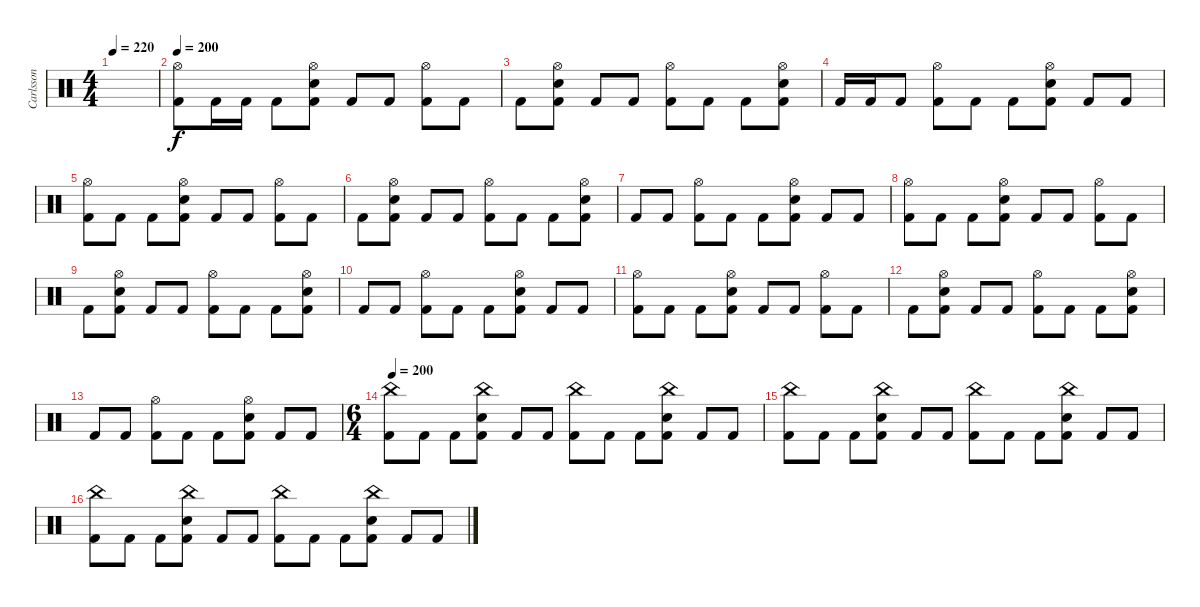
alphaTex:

\track ("Carlsson" "Carlsson") {instrument percussion}
\staff {score}
\articulation defaults
\ts (4 4)
\tempo 220
\tempo 160
\tempo 220
\clef neutral
\ks c
|
\tempo 200
("Hi-Hat (open)" "Kick (hit) 2").8 "Kick (hit) 2".16 "Kick (hit) 2".16 "Kick (hit) 2".8 ("Hi-Hat (open)" "Snare (hit) 2" "Kick (hit) 2").8 "Kick (hit) 2".8 "Kick (hit) 2".8 ("Hi-Hat (open)" "Kick (hit) 2").8 "Kick (hit) 2".8 |
"Kick (hit) 2".8 ("Hi-Hat (open)" "Snare (hit) 2" "Kick (hit) 2").8 "Kick (hit) 2".8 "Kick (hit) 2".8 ("Hi-Hat (open)" "Kick (hit) 2").8 "Kick (hit) 2".8 "Kick (hit) 2".8 ("Hi-Hat (open)" "Snare (hit) 2" "Kick (hit) 2").8 |
"Kick (hit) 2".16 "Kick (hit) 2".16 "Kick (hit) 2".8 ("Hi-Hat (open)" "Kick (hit) 2").8 "Kick (hit) 2".8 "Kick (hit) 2".8 ("Hi-Hat (open)" "Snare (hit) 2" "Kick (hit) 2").8 "Kick (hit) 2".8 "Kick (hit) 2".8 |
("Hi-Hat (open)" "Kick (hit) 2").8 "Kick (hit) 2".8 "Kick (hit) 2".8 ("Hi-Hat (open)" "Snare (hit) 2" "Kick (hit) 2").8 "Kick (hit) 2".8 "Kick (hit) 2".8 ("Hi-Hat (open)" "Kick (hit) 2").8 "Kick (hit) 2".8 |
"Kick (hit) 2".8 ("Hi-Hat (open)" "Snare (hit) 2" "Kick (hit) 2").8 "Kick (hit) 2".8 "Kick (hit) 2".8 ("Hi-Hat (open)" "Kick (hit) 2").8 "Kick (hit) 2".8 "Kick (hit) 2".8 ("Hi-Hat (open)" "Snare (hit) 2" "Kick (hit) 2").8 |
"Kick (hit) 2".8 "Kick (hit) 2".8 ("Hi-Hat (open)" "Kick (hit) 2").8 "Kick (hit) 2".8 "Kick (hit) 2".8 ("Hi-Hat (open)" "Snare (hit) 2" "Kick (hit) 2").8 "Kick (hit) 2".8 "Kick (hit) 2".8 |
("Hi-Hat (open)" "Kick (hit) 2").8 "Kick (hit) 2".8 "Kick (hit) 2".8 ("Hi-Hat (open)" "Snare (hit) 2" "Kick (hit) 2").8 "Kick (hit) 2".8 "Kick (hit) 2".8 ("Hi-Hat (open)" "Kick (hit) 2").8 "Kick (hit) 2".8 |
"Kick (hit) 2".8 ("Hi-Hat (open)" "Snare (hit) 2" "Kick (hit) 2").8 "Kick (hit) 2".8 "Kick (hit) 2".8 ("Hi-Hat (open)" "Kick (hit) 2").8 "Kick (hit) 2".8 "Kick (hit) 2".8 ("Hi-Hat (open)" "Snare (hit) 2" "Kick (hit) 2").8 |
"Kick (hit) 2".8 "Kick (hit) 2".8 ("Hi-Hat (open)" "Kick (hit) 2").8 "Kick (hit) 2".8 "Kick (hit) 2".8 ("Hi-Hat (open)" "Snare (hit) 2" "Kick (hit) 2").8 "Kick (hit) 2".8 "Kick (hit) 2".8 |
("Hi-Hat (open)" "Kick (hit) 2").8 "Kick (hit) 2".8 "Kick (hit) 2".8 ("Hi-Hat (open)" "Snare (hit) 2" "Kick (hit) 2").8 "Kick (hit) 2".8 "Kick (hit) 2".8 ("Hi-Hat (open)" "Kick (hit) 2").8 "Kick (hit) 2".8 |
"Kick (hit) 2".8 ("Hi-Hat (open)" "Snare (hit) 2" "Kick (hit) 2").8 "Kick (hit) 2".8 "Kick (hit) 2".8 ("Hi-Hat (open)" "Kick (hit) 2").8 "Kick (hit) 2".8 "Kick (hit) 2".8 ("Hi-Hat (open)" "Snare (hit) 2" "Kick (hit) 2").8 |
"Kick (hit) 2".8 "Kick (hit) 2".8 ("Hi-Hat (open)" "Kick (hit) 2").8 "Kick (hit) 2".8 "Kick (hit) 2".8 ("Hi-Hat (open)" "Snare (hit) 2" "Kick (hit) 2").8 "Kick (hit) 2".8 "Kick (hit) 2".8 |
\ts (6 4)
\tempo 200
("China (hit)" "Kick (hit) 2").8 "Kick (hit) 2".8 "Kick (hit) 2".8 ("China (hit)" "Snare (hit) 2" "Kick (hit) 2").8 "Kick (hit) 2".8 "Kick (hit) 2".8 ("China (hit)" "Kick (hit) 2").8 "Kick (hit) 2".8 "Kick (hit) 2".8 ("China (hit)" "Snare (hit) 2" "Kick (hit) 2").8 "Kick (hit) 2".8 "Kick (hit) 2".8 |
("China (hit)" "Kick (hit) 2").8 "Kick (hit) 2".8 "Kick (hit) 2".8 ("China (hit)" "Snare (hit) 2" "Kick (hit) 2").8 "Kick (hit) 2".8 "Kick (hit) 2".8 ("China (hit)" "Kick (hit) 2").8 "Kick (hit) 2".8 "Kick (hit) 2".8 ("China (hit)" "Snare (hit) 2" "Kick (hit) 2").8 "Kick (hit) 2".8 "Kick (hit) 2".8 |
("China (hit)" "Kick (hit) 2").8 "Kick (hit) 2".8 "Kick (hit) 2".8 ("China (hit)" "Snare (hit) 2" "Kick (hit) 2").8 "Kick (hit) 2".8 "Kick (hit) 2".8 ("China (hit)" "Kick (hit) 2").8 "Kick (hit) 2".8 "Kick (hit) 2".8 ("China (hit)" "Snare (hit) 2" "Kick (hit) 2").8 "Kick (hit) 2".8 "Kick (hit) 2".8
